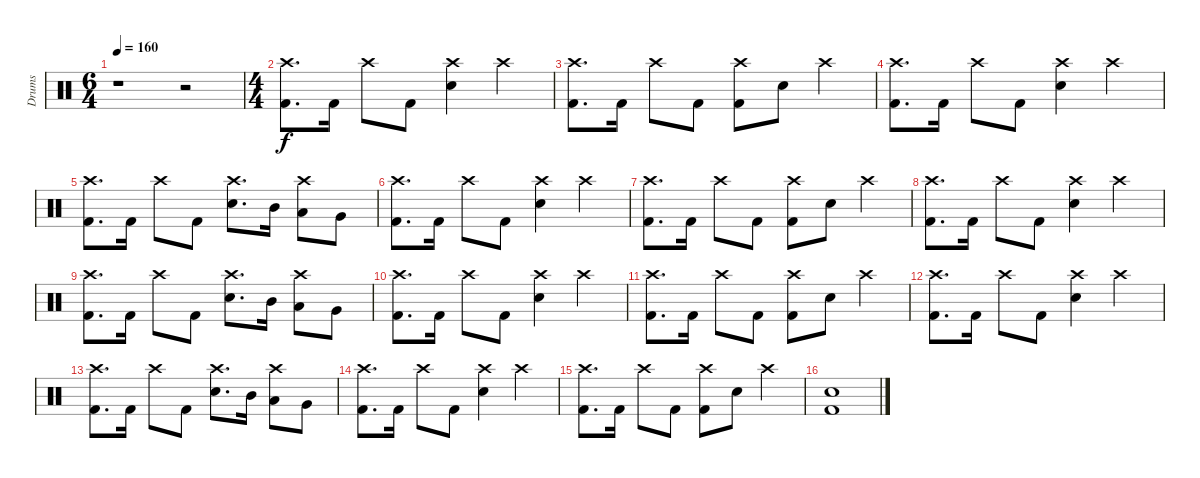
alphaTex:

\track ("Drums" "Drums") {instrument percussion}
\staff {score}
\articulation defaults
\ts (6 4)
\tempo 160
\clef neutral
\ks c
r.1{dy f} r.2 |
\ts (4 4)
("Crash high (hit)" "Kick (hit) 2").8{d} "Kick (hit) 2".16 "Crash high (hit)".8 "Kick (hit) 2".8 ("Crash high (hit)" "Snare (hit) 2").4 "Crash high (hit)".4 |
("Crash high (hit)" "Kick (hit) 2").8{d} "Kick (hit) 2".16 "Crash high (hit)".8 "Kick (hit) 2".8 ("Crash high (hit)" "Kick (hit) 2").8 "Snare (hit) 2".8 "Crash high (hit)".4 |
("Crash high (hit)" "Kick (hit) 2").8{d} "Kick (hit) 2".16 "Crash high (hit)".8 "Kick (hit) 2".8 ("Crash high (hit)" "Snare (hit) 2").4 "Crash high (hit)".4 |
("Crash high (hit)" "Kick (hit) 2").8{d} "Kick (hit) 2".16 "Crash high (hit)".8 "Kick (hit) 2".8 ("Crash high (hit)" "Snare (hit) 2").8{d} "Mid Tom (hit)".16 ("Crash high (hit)" "Low Tom (hit)").8 "Very Low Tom (hit)".8 |
("Crash high (hit)" "Kick (hit) 2").8{d} "Kick (hit) 2".16 "Crash high (hit)".8 "Kick (hit) 2".8 ("Crash high (hit)" "Snare (hit) 2").4 "Crash high (hit)".4 |
("Crash high (hit)" "Kick (hit) 2").8{d} "Kick (hit) 2".16 "Crash high (hit)".8 "Kick (hit) 2".8 ("Crash high (hit)" "Kick (hit) 2").8 "Snare (hit) 2".8 "Crash high (hit)".4 |
("Crash high (hit)" "Kick (hit) 2").8{d} "Kick (hit) 2".16 "Crash high (hit)".8 "Kick (hit) 2".8 ("Crash high (hit)" "Snare (hit) 2").4 "Crash high (hit)".4 |
("Crash high (hit)" "Kick (hit) 2").8{d} "Kick (hit) 2".16 "Crash high (hit)".8 "Kick (hit) 2".8 ("Crash high (hit)" "Snare (hit) 2").8{d} "Mid Tom (hit)".16 ("Crash high (hit)" "Low Tom (hit)").8 "Very Low Tom (hit)".8 |
("Crash high (hit)" "Kick (hit) 2").8{d} "Kick (hit) 2".16 "Crash high (hit)".8 "Kick (hit) 2".8 ("Crash high (hit)" "Snare (hit) 2").4 "Crash high (hit)".4 |
("Crash high (hit)" "Kick (hit) 2").8{d} "Kick (hit) 2".16 "Crash high (hit)".8 "Kick (hit) 2".8 ("Crash high (hit)" "Kick (hit) 2").8 "Snare (hit) 2".8 "Crash high (hit)".4 |
("Crash high (hit)" "Kick (hit) 2").8{d} "Kick (hit) 2".16 "Crash high (hit)".8 "Kick (hit) 2".8 ("Crash high (hit)" "Snare (hit) 2").4 "Crash high (hit)".4 |
("Crash high (hit)" "Kick (hit) 2").8{d} "Kick (hit) 2".16 "Crash high (hit)".8 "Kick (hit) 2".8 ("Crash high (hit)" "Snare (hit) 2").8{d} "Mid Tom (hit)".16 ("Crash high (hit)" "Low Tom (hit)").8 "Very Low Tom (hit)".8 |
("Crash high (hit)" "Kick (hit) 2").8{d} "Kick (hit) 2".16 "Crash high (hit)".8 "Kick (hit) 2".8 ("Crash high (hit)" "Snare (hit) 2").4 "Crash high (hit)".4 |
("Crash high (hit)" "Kick (hit) 2").8{d} "Kick (hit) 2".16 "Crash high (hit)".8 "Kick (hit) 2".8 ("Crash high (hit)" "Kick (hit) 2").8 "Snare (hit) 2".8 "Crash high (hit)".4 |
("Snare (hit) 2" "Kick (hit) 2").1
